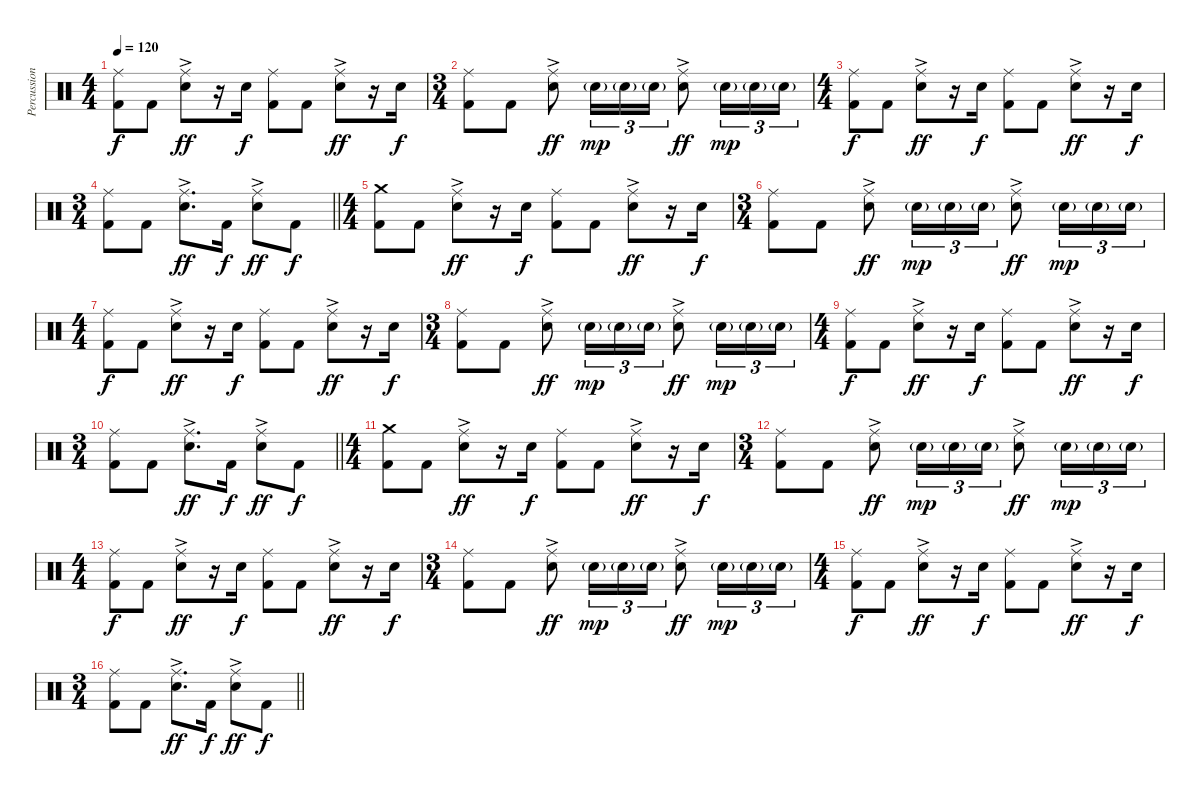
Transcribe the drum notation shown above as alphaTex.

\track ("Percussion" "Percussion") {instrument percussion}
\staff {score}
\articulation defaults
\ts (4 4)
\tempo 120
\clef neutral
\ks c
("Ride (middle)" "Kick (hit) 2").8{dy f} "Kick (hit) 2".8 ("Ride (middle)" "Electric Snare (hit)"{ac}).8{dy ff} r.16 "Electric Snare (hit)".16{dy f} ("Ride (middle)" "Kick (hit) 2").8 "Kick (hit) 2".8 ("Ride (middle)" "Electric Snare (hit)"{ac}).8{dy ff} r.16 "Electric Snare (hit)".16{dy f} |
\ts (3 4)
("Ride (middle)" "Kick (hit) 2").8 "Kick (hit) 2".8 ("Ride (middle)" "Electric Snare (hit)"{ac}).8{dy ff} "Electric Snare (hit)"{g}.16{tu (3 2) dy mp} "Electric Snare (hit)"{g}.16{tu (3 2)} "Electric Snare (hit)"{g}.16{tu (3 2)} ("Ride (middle)" "Electric Snare (hit)"{ac}).8{dy ff} "Electric Snare (hit)"{g}.16{tu (3 2) dy mp} "Electric Snare (hit)"{g}.16{tu (3 2)} "Electric Snare (hit)"{g}.16{tu (3 2)} |
\ts (4 4)
("Ride (middle)" "Kick (hit) 2").8{dy f} "Kick (hit) 2".8 ("Ride (middle)" "Electric Snare (hit)"{ac}).8{dy ff} r.16 "Electric Snare (hit)".16{dy f} ("Ride (middle)" "Kick (hit) 2").8 "Kick (hit) 2".8 ("Ride (middle)" "Electric Snare (hit)"{ac}).8{dy ff} r.16 "Electric Snare (hit)".16{dy f} |
\ts (3 4)
\barLineRight lightlight
("Ride (middle)" "Kick (hit) 2").8 "Kick (hit) 2".8 ("Ride (middle)" "Electric Snare (hit)"{ac}).8{d dy ff} "Kick (hit) 2".16{dy f} ("Ride (middle)" "Electric Snare (hit)"{ac}).8{dy ff} "Kick (hit) 2".8{dy f} |
\ts (4 4)
("Crash medium (hit)" "Kick (hit) 2").8 "Kick (hit) 2".8 ("Ride (middle)" "Electric Snare (hit)"{ac}).8{dy ff} r.16 "Electric Snare (hit)".16{dy f} ("Ride (middle)" "Kick (hit) 2").8 "Kick (hit) 2".8 ("Ride (middle)" "Electric Snare (hit)"{ac}).8{dy ff} r.16 "Electric Snare (hit)".16{dy f} |
\ts (3 4)
("Ride (middle)" "Kick (hit) 2").8 "Kick (hit) 2".8 ("Ride (middle)" "Electric Snare (hit)"{ac}).8{dy ff} "Electric Snare (hit)"{g}.16{tu (3 2) dy mp} "Electric Snare (hit)"{g}.16{tu (3 2)} "Electric Snare (hit)"{g}.16{tu (3 2)} ("Ride (middle)" "Electric Snare (hit)"{ac}).8{dy ff} "Electric Snare (hit)"{g}.16{tu (3 2) dy mp} "Electric Snare (hit)"{g}.16{tu (3 2)} "Electric Snare (hit)"{g}.16{tu (3 2)} |
\ts (4 4)
("Ride (middle)" "Kick (hit) 2").8{dy f} "Kick (hit) 2".8 ("Ride (middle)" "Electric Snare (hit)"{ac}).8{dy ff} r.16 "Electric Snare (hit)".16{dy f} ("Ride (middle)" "Kick (hit) 2").8 "Kick (hit) 2".8 ("Ride (middle)" "Electric Snare (hit)"{ac}).8{dy ff} r.16 "Electric Snare (hit)".16{dy f} |
\ts (3 4)
("Ride (middle)" "Kick (hit) 2").8 "Kick (hit) 2".8 ("Ride (middle)" "Electric Snare (hit)"{ac}).8{dy ff} "Electric Snare (hit)"{g}.16{tu (3 2) dy mp} "Electric Snare (hit)"{g}.16{tu (3 2)} "Electric Snare (hit)"{g}.16{tu (3 2)} ("Ride (middle)" "Electric Snare (hit)"{ac}).8{dy ff} "Electric Snare (hit)"{g}.16{tu (3 2) dy mp} "Electric Snare (hit)"{g}.16{tu (3 2)} "Electric Snare (hit)"{g}.16{tu (3 2)} |
\ts (4 4)
("Ride (middle)" "Kick (hit) 2").8{dy f} "Kick (hit) 2".8 ("Ride (middle)" "Electric Snare (hit)"{ac}).8{dy ff} r.16 "Electric Snare (hit)".16{dy f} ("Ride (middle)" "Kick (hit) 2").8 "Kick (hit) 2".8 ("Ride (middle)" "Electric Snare (hit)"{ac}).8{dy ff} r.16 "Electric Snare (hit)".16{dy f} |
\ts (3 4)
\barLineRight lightlight
("Ride (middle)" "Kick (hit) 2").8 "Kick (hit) 2".8 ("Ride (middle)" "Electric Snare (hit)"{ac}).8{d dy ff} "Kick (hit) 2".16{dy f} ("Ride (middle)" "Electric Snare (hit)"{ac}).8{dy ff} "Kick (hit) 2".8{dy f} |
\ts (4 4)
("Crash medium (hit)" "Kick (hit) 2").8 "Kick (hit) 2".8 ("Ride (middle)" "Electric Snare (hit)"{ac}).8{dy ff} r.16 "Electric Snare (hit)".16{dy f} ("Ride (middle)" "Kick (hit) 2").8 "Kick (hit) 2".8 ("Ride (middle)" "Electric Snare (hit)"{ac}).8{dy ff} r.16 "Electric Snare (hit)".16{dy f} |
\ts (3 4)
("Ride (middle)" "Kick (hit) 2").8 "Kick (hit) 2".8 ("Ride (middle)" "Electric Snare (hit)"{ac}).8{dy ff} "Electric Snare (hit)"{g}.16{tu (3 2) dy mp} "Electric Snare (hit)"{g}.16{tu (3 2)} "Electric Snare (hit)"{g}.16{tu (3 2)} ("Ride (middle)" "Electric Snare (hit)"{ac}).8{dy ff} "Electric Snare (hit)"{g}.16{tu (3 2) dy mp} "Electric Snare (hit)"{g}.16{tu (3 2)} "Electric Snare (hit)"{g}.16{tu (3 2)} |
\ts (4 4)
("Ride (middle)" "Kick (hit) 2").8{dy f} "Kick (hit) 2".8 ("Ride (middle)" "Electric Snare (hit)"{ac}).8{dy ff} r.16 "Electric Snare (hit)".16{dy f} ("Ride (middle)" "Kick (hit) 2").8 "Kick (hit) 2".8 ("Ride (middle)" "Electric Snare (hit)"{ac}).8{dy ff} r.16 "Electric Snare (hit)".16{dy f} |
\ts (3 4)
("Ride (middle)" "Kick (hit) 2").8 "Kick (hit) 2".8 ("Ride (middle)" "Electric Snare (hit)"{ac}).8{dy ff} "Electric Snare (hit)"{g}.16{tu (3 2) dy mp} "Electric Snare (hit)"{g}.16{tu (3 2)} "Electric Snare (hit)"{g}.16{tu (3 2)} ("Ride (middle)" "Electric Snare (hit)"{ac}).8{dy ff} "Electric Snare (hit)"{g}.16{tu (3 2) dy mp} "Electric Snare (hit)"{g}.16{tu (3 2)} "Electric Snare (hit)"{g}.16{tu (3 2)} |
\ts (4 4)
("Ride (middle)" "Kick (hit) 2").8{dy f} "Kick (hit) 2".8 ("Ride (middle)" "Electric Snare (hit)"{ac}).8{dy ff} r.16 "Electric Snare (hit)".16{dy f} ("Ride (middle)" "Kick (hit) 2").8 "Kick (hit) 2".8 ("Ride (middle)" "Electric Snare (hit)"{ac}).8{dy ff} r.16 "Electric Snare (hit)".16{dy f} |
\ts (3 4)
\barLineRight lightlight
("Ride (middle)" "Kick (hit) 2").8 "Kick (hit) 2".8 ("Ride (middle)" "Electric Snare (hit)"{ac}).8{d dy ff} "Kick (hit) 2".16{dy f} ("Ride (middle)" "Electric Snare (hit)"{ac}).8{dy ff} "Kick (hit) 2".8{dy f}
